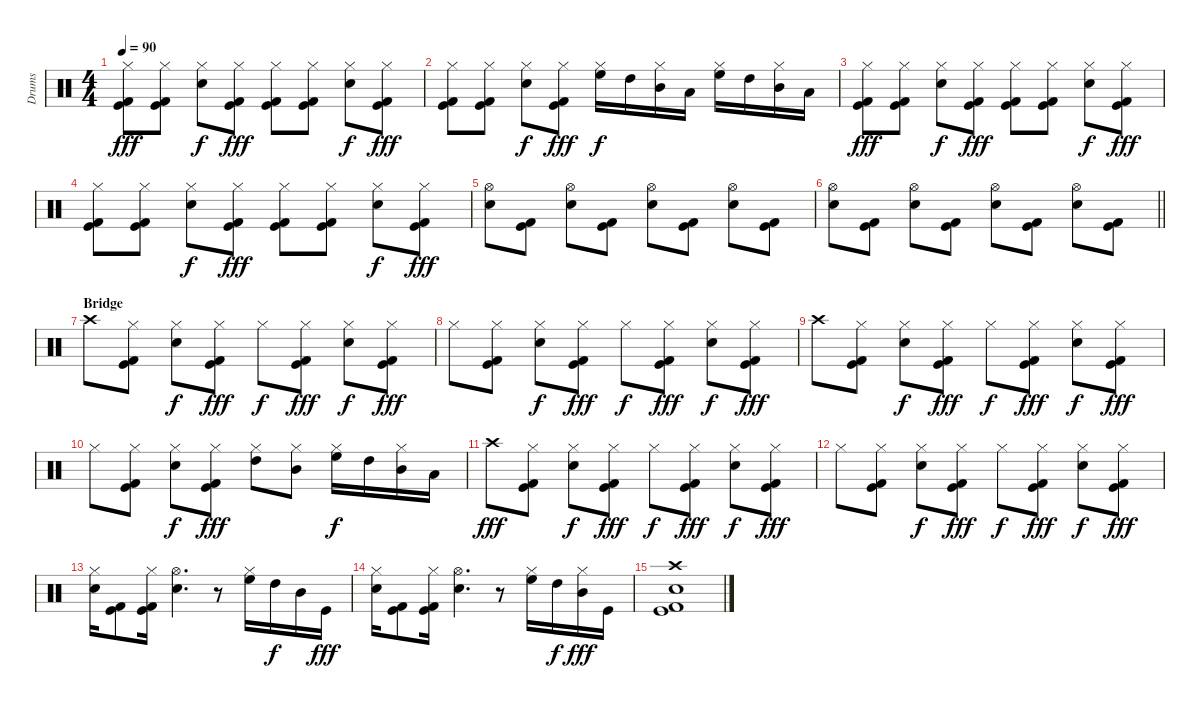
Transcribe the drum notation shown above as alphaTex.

\track ("Drums" "Drums") {instrument percussion}
\staff {score}
\articulation defaults
\ts (4 4)
\tempo 90
\clef neutral
\ks c
("Hi-Hat (closed)" "Kick (hit) 2" "Kick (hit)").8{dy fff} ("Hi-Hat (closed)" "Kick (hit) 2" "Kick (hit)").8 ("Hi-Hat (closed)" "Snare (hit) 2").8{dy f} ("Hi-Hat (closed)" "Kick (hit) 2" "Kick (hit)").8{dy fff} ("Hi-Hat (closed)" "Kick (hit) 2" "Kick (hit)").8 ("Hi-Hat (closed)" "Kick (hit) 2" "Kick (hit)").8 ("Hi-Hat (closed)" "Snare (hit) 2").8{dy f} ("Hi-Hat (closed)" "Kick (hit) 2" "Kick (hit)").8{dy fff} |
("Hi-Hat (closed)" "Kick (hit) 2" "Kick (hit)").8 ("Hi-Hat (closed)" "Kick (hit) 2" "Kick (hit)").8 ("Hi-Hat (closed)" "Snare (hit) 2").8{dy f} ("Hi-Hat (closed)" "Kick (hit) 2" "Kick (hit)").8{dy fff} ("Hi-Hat (closed)" "High Floor Tom (hit)").16{dy f} "High Tom (hit)".16 ("Hi-Hat (closed)" "Mid Tom (hit)").16 "Low Tom (hit)".16 ("Hi-Hat (closed)" "High Floor Tom (hit)").16 "High Tom (hit)".16 ("Hi-Hat (closed)" "Mid Tom (hit)").16 "Low Tom (hit)".16 |
("Hi-Hat (closed)" "Kick (hit) 2" "Kick (hit)").8{dy fff} ("Hi-Hat (closed)" "Kick (hit) 2" "Kick (hit)").8 ("Hi-Hat (closed)" "Snare (hit) 2").8{dy f} ("Hi-Hat (closed)" "Kick (hit) 2" "Kick (hit)").8{dy fff} ("Hi-Hat (closed)" "Kick (hit) 2" "Kick (hit)").8 ("Hi-Hat (closed)" "Kick (hit) 2" "Kick (hit)").8 ("Hi-Hat (closed)" "Snare (hit) 2").8{dy f} ("Hi-Hat (closed)" "Kick (hit) 2" "Kick (hit)").8{dy fff} |
("Hi-Hat (closed)" "Kick (hit) 2" "Kick (hit)").8 ("Hi-Hat (closed)" "Kick (hit) 2" "Kick (hit)").8 ("Hi-Hat (closed)" "Snare (hit) 2").8{dy f} ("Hi-Hat (closed)" "Kick (hit) 2" "Kick (hit)").8{dy fff} ("Hi-Hat (closed)" "Kick (hit) 2" "Kick (hit)").8 ("Hi-Hat (closed)" "Kick (hit) 2" "Kick (hit)").8 ("Hi-Hat (closed)" "Snare (hit) 2").8{dy f} ("Hi-Hat (closed)" "Kick (hit) 2" "Kick (hit)").8{dy fff} |
("Hi-Hat (open)" "Snare (hit) 2").8 ("Kick (hit) 2" "Kick (hit)").8 ("Hi-Hat (open)" "Snare (hit) 2").8 ("Kick (hit) 2" "Kick (hit)").8 ("Hi-Hat (open)" "Snare (hit) 2").8 ("Kick (hit) 2" "Kick (hit)").8 ("Hi-Hat (open)" "Snare (hit) 2").8 ("Kick (hit) 2" "Kick (hit)").8 |
\barLineRight lightlight
("Hi-Hat (open)" "Snare (hit) 2").8 ("Kick (hit) 2" "Kick (hit)").8 ("Hi-Hat (open)" "Snare (hit) 2").8 ("Kick (hit) 2" "Kick (hit)").8 ("Hi-Hat (open)" "Snare (hit) 2").8 ("Kick (hit) 2" "Kick (hit)").8 ("Hi-Hat (open)" "Snare (hit) 2").8 ("Kick (hit) 2" "Kick (hit)").8 |
\section ("" "Bridge")
"Crash high (hit)".8 ("Hi-Hat (closed)" "Kick (hit) 2" "Kick (hit)").8 ("Hi-Hat (closed)" "Snare (hit) 2").8{dy f} ("Hi-Hat (closed)" "Kick (hit) 2" "Kick (hit)").8{dy fff} "Hi-Hat (closed)".8{dy f} ("Hi-Hat (closed)" "Kick (hit) 2" "Kick (hit)").8{dy fff} ("Hi-Hat (closed)" "Snare (hit) 2").8{dy f} ("Hi-Hat (closed)" "Kick (hit) 2" "Kick (hit)").8{dy fff} |
"Hi-Hat (closed)".8 ("Hi-Hat (closed)" "Kick (hit) 2" "Kick (hit)").8 ("Hi-Hat (closed)" "Snare (hit) 2").8{dy f} ("Hi-Hat (closed)" "Kick (hit) 2" "Kick (hit)").8{dy fff} "Hi-Hat (closed)".8{dy f} ("Hi-Hat (closed)" "Kick (hit) 2" "Kick (hit)").8{dy fff} ("Hi-Hat (closed)" "Snare (hit) 2").8{dy f} ("Hi-Hat (closed)" "Kick (hit) 2" "Kick (hit)").8{dy fff} |
"Crash high (hit)".8 ("Hi-Hat (closed)" "Kick (hit) 2" "Kick (hit)").8 ("Hi-Hat (closed)" "Snare (hit) 2").8{dy f} ("Hi-Hat (closed)" "Kick (hit) 2" "Kick (hit)").8{dy fff} "Hi-Hat (closed)".8{dy f} ("Hi-Hat (closed)" "Kick (hit) 2" "Kick (hit)").8{dy fff} ("Hi-Hat (closed)" "Snare (hit) 2").8{dy f} ("Hi-Hat (closed)" "Kick (hit) 2" "Kick (hit)").8{dy fff} |
"Hi-Hat (closed)".8 ("Hi-Hat (closed)" "Kick (hit) 2" "Kick (hit)").8 ("Hi-Hat (closed)" "Snare (hit) 2").8{dy f} ("Hi-Hat (closed)" "Kick (hit) 2" "Kick (hit)").8{dy fff} ("Hi-Hat (closed)" "High Tom (hit)").8 ("Hi-Hat (closed)" "Mid Tom (hit)").8 ("Hi-Hat (closed)" "High Floor Tom (hit)").16{dy f} "High Tom (hit)".16 ("Hi-Hat (closed)" "Mid Tom (hit)").16 "Low Tom (hit)".16 |
"Crash high (hit)".8{dy fff} ("Hi-Hat (closed)" "Kick (hit) 2" "Kick (hit)").8 ("Hi-Hat (closed)" "Snare (hit) 2").8{dy f} ("Hi-Hat (closed)" "Kick (hit) 2" "Kick (hit)").8{dy fff} "Hi-Hat (closed)".8{dy f} ("Hi-Hat (closed)" "Kick (hit) 2" "Kick (hit)").8{dy fff} ("Hi-Hat (closed)" "Snare (hit) 2").8{dy f} ("Hi-Hat (closed)" "Kick (hit) 2" "Kick (hit)").8{dy fff} |
"Hi-Hat (closed)".8 ("Hi-Hat (closed)" "Kick (hit) 2" "Kick (hit)").8 ("Hi-Hat (closed)" "Snare (hit) 2").8{dy f} ("Hi-Hat (closed)" "Kick (hit) 2" "Kick (hit)").8{dy fff} "Hi-Hat (closed)".8{dy f} ("Hi-Hat (closed)" "Kick (hit) 2" "Kick (hit)").8{dy fff} ("Hi-Hat (closed)" "Snare (hit) 2").8{dy f} ("Hi-Hat (closed)" "Kick (hit) 2" "Kick (hit)").8{dy fff} |
("Hi-Hat (closed)" "Snare (hit) 2").16 ("Kick (hit) 2" "Kick (hit)").8 ("Hi-Hat (closed)" "Kick (hit) 2" "Kick (hit)").16 ("Hi-Hat (open)" "Snare (hit) 2").4{d} r.8 ("Hi-Hat (closed)" "High Floor Tom (hit)").16 "High Tom (hit)".16{dy f} "Mid Tom (hit)".16 "Kick (hit)".16{dy fff} |
("Hi-Hat (closed)" "Snare (hit) 2").16 ("Kick (hit) 2" "Kick (hit)").8 ("Hi-Hat (closed)" "Kick (hit) 2" "Kick (hit)").16 ("Hi-Hat (open)" "Snare (hit) 2").4{d} r.8 ("Hi-Hat (closed)" "High Floor Tom (hit)").16 "High Tom (hit)".16{dy f} ("Hi-Hat (closed)" "Mid Tom (hit)").16{dy fff} "Kick (hit)".16 |
("Crash high (hit)" "Snare (hit) 2" "Kick (hit) 2" "Kick (hit)").1
